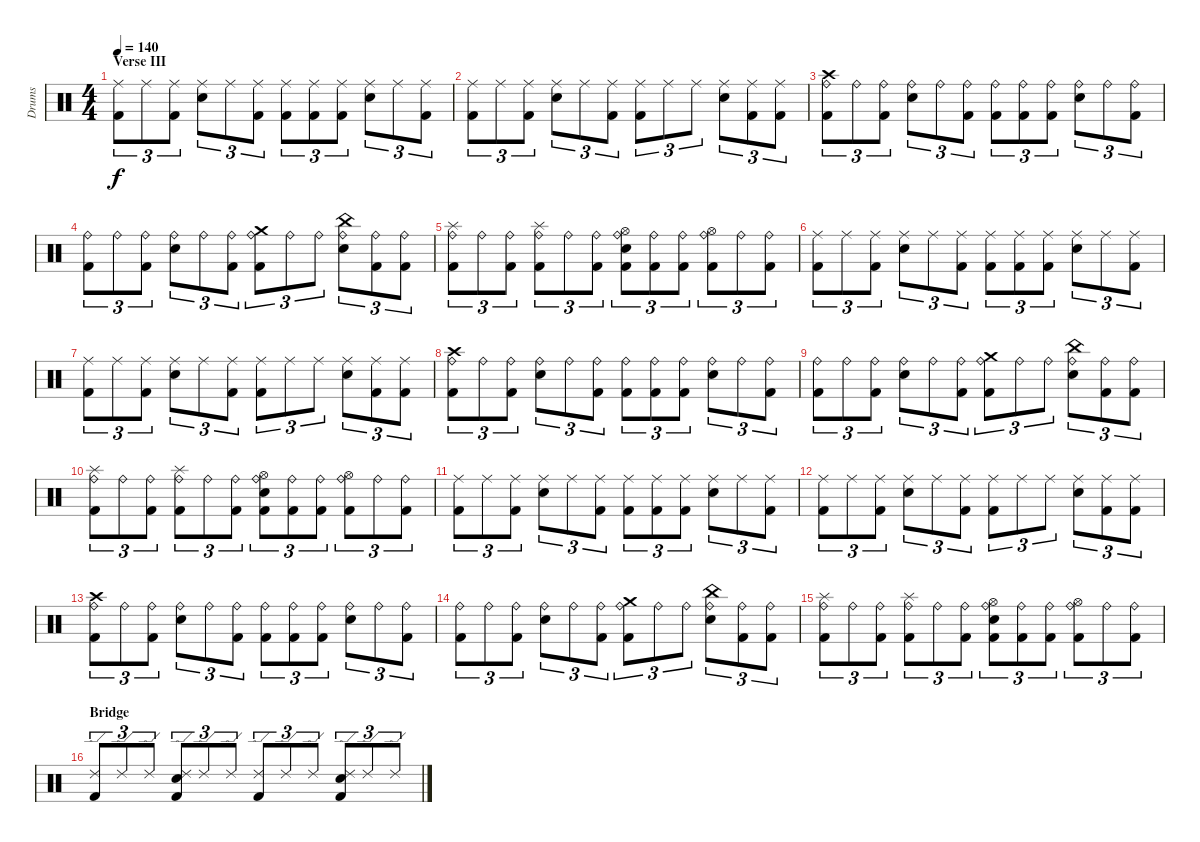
\track ("Drums" "Drums") {instrument percussion}
\staff {score}
\articulation defaults
\ts (4 4)
\section ("" "Verse III")
\tempo 140
\clef neutral
\ks c
("Ride (middle)" "Kick (hit) 2").8{tu (3 2) dy f} "Ride (middle)".8{tu (3 2)} ("Ride (middle)" "Kick (hit) 2").8{tu (3 2)} ("Ride (middle)" "Electric Snare (hit)").8{tu (3 2)} "Ride (middle)".8{tu (3 2)} ("Ride (middle)" "Kick (hit) 2").8{tu (3 2)} ("Ride (middle)" "Kick (hit) 2").8{tu (3 2)} ("Ride (middle)" "Kick (hit) 2").8{tu (3 2)} ("Ride (middle)" "Kick (hit) 2").8{tu (3 2)} ("Ride (middle)" "Electric Snare (hit)").8{tu (3 2)} "Ride (middle)".8{tu (3 2)} ("Ride (middle)" "Kick (hit) 2").8{tu (3 2)} |
("Ride (middle)" "Kick (hit) 2").8{tu (3 2)} "Ride (middle)".8{tu (3 2)} ("Ride (middle)" "Kick (hit) 2").8{tu (3 2)} ("Ride (middle)" "Electric Snare (hit)").8{tu (3 2)} "Ride (middle)".8{tu (3 2)} ("Ride (middle)" "Kick (hit) 2").8{tu (3 2)} ("Ride (middle)" "Kick (hit) 2").8{tu (3 2)} "Ride (middle)".8{tu (3 2)} "Ride (middle)".8{tu (3 2)} ("Ride (middle)" "Electric Snare (hit)").8{tu (3 2)} ("Ride (middle)" "Kick (hit) 2").8{tu (3 2)} ("Ride (middle)" "Kick (hit) 2").8{tu (3 2)} |
("Ride (bell)" "Kick (hit) 2" "Crash high (hit)").8{tu (3 2)} "Ride (bell)".8{tu (3 2)} ("Ride (bell)" "Kick (hit) 2").8{tu (3 2)} ("Ride (bell)" "Electric Snare (hit)").8{tu (3 2)} "Ride (bell)".8{tu (3 2)} ("Ride (bell)" "Kick (hit) 2").8{tu (3 2)} ("Ride (bell)" "Kick (hit) 2").8{tu (3 2)} ("Ride (bell)" "Kick (hit) 2").8{tu (3 2)} ("Ride (bell)" "Kick (hit) 2").8{tu (3 2)} ("Ride (bell)" "Electric Snare (hit)").8{tu (3 2)} "Ride (bell)".8{tu (3 2)} ("Ride (bell)" "Kick (hit) 2").8{tu (3 2)} |
("Ride (bell)" "Kick (hit) 2").8{tu (3 2)} "Ride (bell)".8{tu (3 2)} ("Ride (bell)" "Kick (hit) 2").8{tu (3 2)} ("Ride (bell)" "Electric Snare (hit)").8{tu (3 2)} "Ride (bell)".8{tu (3 2)} ("Ride (bell)" "Kick (hit) 2").8{tu (3 2)} ("Ride (bell)" "Crash medium (hit)" "Kick (hit) 2").8{tu (3 2)} "Ride (bell)".8{tu (3 2)} "Ride (bell)".8{tu (3 2)} ("Ride (bell)" "China (hit)" "Electric Snare (hit)").8{tu (3 2)} ("Ride (bell)" "Kick (hit) 2").8{tu (3 2)} ("Ride (bell)" "Kick (hit) 2").8{tu (3 2)} |
("Ride (bell)" "Splash (hit)" "Kick (hit) 2").8{tu (3 2)} "Ride (bell)".8{tu (3 2)} ("Ride (bell)" "Kick (hit) 2").8{tu (3 2)} ("Ride (bell)" "Splash (hit)" "Kick (hit) 2").8{tu (3 2)} "Ride (bell)".8{tu (3 2)} ("Ride (bell)" "Kick (hit) 2").8{tu (3 2)} ("Ride (bell)" "Hi-Hat (open)" "Kick (hit) 2" "Electric Snare (hit)").8{tu (3 2)} ("Ride (bell)" "Kick (hit) 2").8{tu (3 2)} ("Ride (bell)" "Kick (hit) 2").8{tu (3 2)} ("Ride (bell)" "Hi-Hat (open)" "Kick (hit) 2").8{tu (3 2)} "Ride (bell)".8{tu (3 2)} ("Ride (bell)" "Kick (hit) 2").8{tu (3 2)} |
("Ride (middle)" "Kick (hit) 2").8{tu (3 2)} "Ride (middle)".8{tu (3 2)} ("Ride (middle)" "Kick (hit) 2").8{tu (3 2)} ("Ride (middle)" "Electric Snare (hit)").8{tu (3 2)} "Ride (middle)".8{tu (3 2)} ("Ride (middle)" "Kick (hit) 2").8{tu (3 2)} ("Ride (middle)" "Kick (hit) 2").8{tu (3 2)} ("Ride (middle)" "Kick (hit) 2").8{tu (3 2)} ("Ride (middle)" "Kick (hit) 2").8{tu (3 2)} ("Ride (middle)" "Electric Snare (hit)").8{tu (3 2)} "Ride (middle)".8{tu (3 2)} ("Ride (middle)" "Kick (hit) 2").8{tu (3 2)} |
("Ride (middle)" "Kick (hit) 2").8{tu (3 2)} "Ride (middle)".8{tu (3 2)} ("Ride (middle)" "Kick (hit) 2").8{tu (3 2)} ("Ride (middle)" "Electric Snare (hit)").8{tu (3 2)} "Ride (middle)".8{tu (3 2)} ("Ride (middle)" "Kick (hit) 2").8{tu (3 2)} ("Ride (middle)" "Kick (hit) 2").8{tu (3 2)} "Ride (middle)".8{tu (3 2)} "Ride (middle)".8{tu (3 2)} ("Ride (middle)" "Electric Snare (hit)").8{tu (3 2)} ("Ride (middle)" "Kick (hit) 2").8{tu (3 2)} ("Ride (middle)" "Kick (hit) 2").8{tu (3 2)} |
("Ride (bell)" "Kick (hit) 2" "Crash high (hit)").8{tu (3 2)} "Ride (bell)".8{tu (3 2)} ("Ride (bell)" "Kick (hit) 2").8{tu (3 2)} ("Ride (bell)" "Electric Snare (hit)").8{tu (3 2)} "Ride (bell)".8{tu (3 2)} ("Ride (bell)" "Kick (hit) 2").8{tu (3 2)} ("Ride (bell)" "Kick (hit) 2").8{tu (3 2)} ("Ride (bell)" "Kick (hit) 2").8{tu (3 2)} ("Ride (bell)" "Kick (hit) 2").8{tu (3 2)} ("Ride (bell)" "Electric Snare (hit)").8{tu (3 2)} "Ride (bell)".8{tu (3 2)} ("Ride (bell)" "Kick (hit) 2").8{tu (3 2)} |
("Ride (bell)" "Kick (hit) 2").8{tu (3 2)} "Ride (bell)".8{tu (3 2)} ("Ride (bell)" "Kick (hit) 2").8{tu (3 2)} ("Ride (bell)" "Electric Snare (hit)").8{tu (3 2)} "Ride (bell)".8{tu (3 2)} ("Ride (bell)" "Kick (hit) 2").8{tu (3 2)} ("Ride (bell)" "Crash medium (hit)" "Kick (hit) 2").8{tu (3 2)} "Ride (bell)".8{tu (3 2)} "Ride (bell)".8{tu (3 2)} ("Ride (bell)" "China (hit)" "Electric Snare (hit)").8{tu (3 2)} ("Ride (bell)" "Kick (hit) 2").8{tu (3 2)} ("Ride (bell)" "Kick (hit) 2").8{tu (3 2)} |
("Ride (bell)" "Splash (hit)" "Kick (hit) 2").8{tu (3 2)} "Ride (bell)".8{tu (3 2)} ("Ride (bell)" "Kick (hit) 2").8{tu (3 2)} ("Ride (bell)" "Splash (hit)" "Kick (hit) 2").8{tu (3 2)} "Ride (bell)".8{tu (3 2)} ("Ride (bell)" "Kick (hit) 2").8{tu (3 2)} ("Ride (bell)" "Hi-Hat (open)" "Kick (hit) 2" "Electric Snare (hit)").8{tu (3 2)} ("Ride (bell)" "Kick (hit) 2").8{tu (3 2)} ("Ride (bell)" "Kick (hit) 2").8{tu (3 2)} ("Ride (bell)" "Hi-Hat (open)" "Kick (hit) 2").8{tu (3 2)} "Ride (bell)".8{tu (3 2)} ("Ride (bell)" "Kick (hit) 2").8{tu (3 2)} |
("Ride (middle)" "Kick (hit) 2").8{tu (3 2)} "Ride (middle)".8{tu (3 2)} ("Ride (middle)" "Kick (hit) 2").8{tu (3 2)} ("Ride (middle)" "Electric Snare (hit)").8{tu (3 2)} "Ride (middle)".8{tu (3 2)} ("Ride (middle)" "Kick (hit) 2").8{tu (3 2)} ("Ride (middle)" "Kick (hit) 2").8{tu (3 2)} ("Ride (middle)" "Kick (hit) 2").8{tu (3 2)} ("Ride (middle)" "Kick (hit) 2").8{tu (3 2)} ("Ride (middle)" "Electric Snare (hit)").8{tu (3 2)} "Ride (middle)".8{tu (3 2)} ("Ride (middle)" "Kick (hit) 2").8{tu (3 2)} |
("Ride (middle)" "Kick (hit) 2").8{tu (3 2)} "Ride (middle)".8{tu (3 2)} ("Ride (middle)" "Kick (hit) 2").8{tu (3 2)} ("Ride (middle)" "Electric Snare (hit)").8{tu (3 2)} "Ride (middle)".8{tu (3 2)} ("Ride (middle)" "Kick (hit) 2").8{tu (3 2)} ("Ride (middle)" "Kick (hit) 2").8{tu (3 2)} "Ride (middle)".8{tu (3 2)} "Ride (middle)".8{tu (3 2)} ("Ride (middle)" "Electric Snare (hit)").8{tu (3 2)} ("Ride (middle)" "Kick (hit) 2").8{tu (3 2)} ("Ride (middle)" "Kick (hit) 2").8{tu (3 2)} |
("Ride (bell)" "Kick (hit) 2" "Crash high (hit)").8{tu (3 2)} "Ride (bell)".8{tu (3 2)} ("Ride (bell)" "Kick (hit) 2").8{tu (3 2)} ("Ride (bell)" "Electric Snare (hit)").8{tu (3 2)} "Ride (bell)".8{tu (3 2)} ("Ride (bell)" "Kick (hit) 2").8{tu (3 2)} ("Ride (bell)" "Kick (hit) 2").8{tu (3 2)} ("Ride (bell)" "Kick (hit) 2").8{tu (3 2)} ("Ride (bell)" "Kick (hit) 2").8{tu (3 2)} ("Ride (bell)" "Electric Snare (hit)").8{tu (3 2)} "Ride (bell)".8{tu (3 2)} ("Ride (bell)" "Kick (hit) 2").8{tu (3 2)} |
("Ride (bell)" "Kick (hit) 2").8{tu (3 2)} "Ride (bell)".8{tu (3 2)} ("Ride (bell)" "Kick (hit) 2").8{tu (3 2)} ("Ride (bell)" "Electric Snare (hit)").8{tu (3 2)} "Ride (bell)".8{tu (3 2)} ("Ride (bell)" "Kick (hit) 2").8{tu (3 2)} ("Ride (bell)" "Crash medium (hit)" "Kick (hit) 2").8{tu (3 2)} "Ride (bell)".8{tu (3 2)} "Ride (bell)".8{tu (3 2)} ("Ride (bell)" "China (hit)" "Electric Snare (hit)").8{tu (3 2)} ("Ride (bell)" "Kick (hit) 2").8{tu (3 2)} ("Ride (bell)" "Kick (hit) 2").8{tu (3 2)} |
("Ride (bell)" "Splash (hit)" "Kick (hit) 2").8{tu (3 2)} "Ride (bell)".8{tu (3 2)} ("Ride (bell)" "Kick (hit) 2").8{tu (3 2)} ("Ride (bell)" "Splash (hit)" "Kick (hit) 2").8{tu (3 2)} "Ride (bell)".8{tu (3 2)} ("Ride (bell)" "Kick (hit) 2").8{tu (3 2)} ("Ride (bell)" "Hi-Hat (open)" "Kick (hit) 2" "Electric Snare (hit)").8{tu (3 2)} ("Ride (bell)" "Kick (hit) 2").8{tu (3 2)} ("Ride (bell)" "Kick (hit) 2").8{tu (3 2)} ("Ride (bell)" "Hi-Hat (open)" "Kick (hit) 2").8{tu (3 2)} "Ride (bell)".8{tu (3 2)} ("Ride (bell)" "Kick (hit) 2").8{tu (3 2)} |
\section ("" "Bridge")
("Ride (edge) 2" "Kick (hit) 2").8{tu (3 2)} "Ride (edge) 2".8{tu (3 2)} "Ride (edge) 2".8{tu (3 2)} ("Ride (edge) 2" "Kick (hit) 2" "Electric Snare (hit)").8{tu (3 2)} "Ride (edge) 2".8{tu (3 2)} "Ride (edge) 2".8{tu (3 2)} ("Ride (edge) 2" "Kick (hit) 2").8{tu (3 2)} "Ride (edge) 2".8{tu (3 2)} "Ride (edge) 2".8{tu (3 2)} ("Ride (edge) 2" "Kick (hit) 2" "Electric Snare (hit)").8{tu (3 2)} "Ride (edge) 2".8{tu (3 2)} "Ride (edge) 2".8{tu (3 2)}
